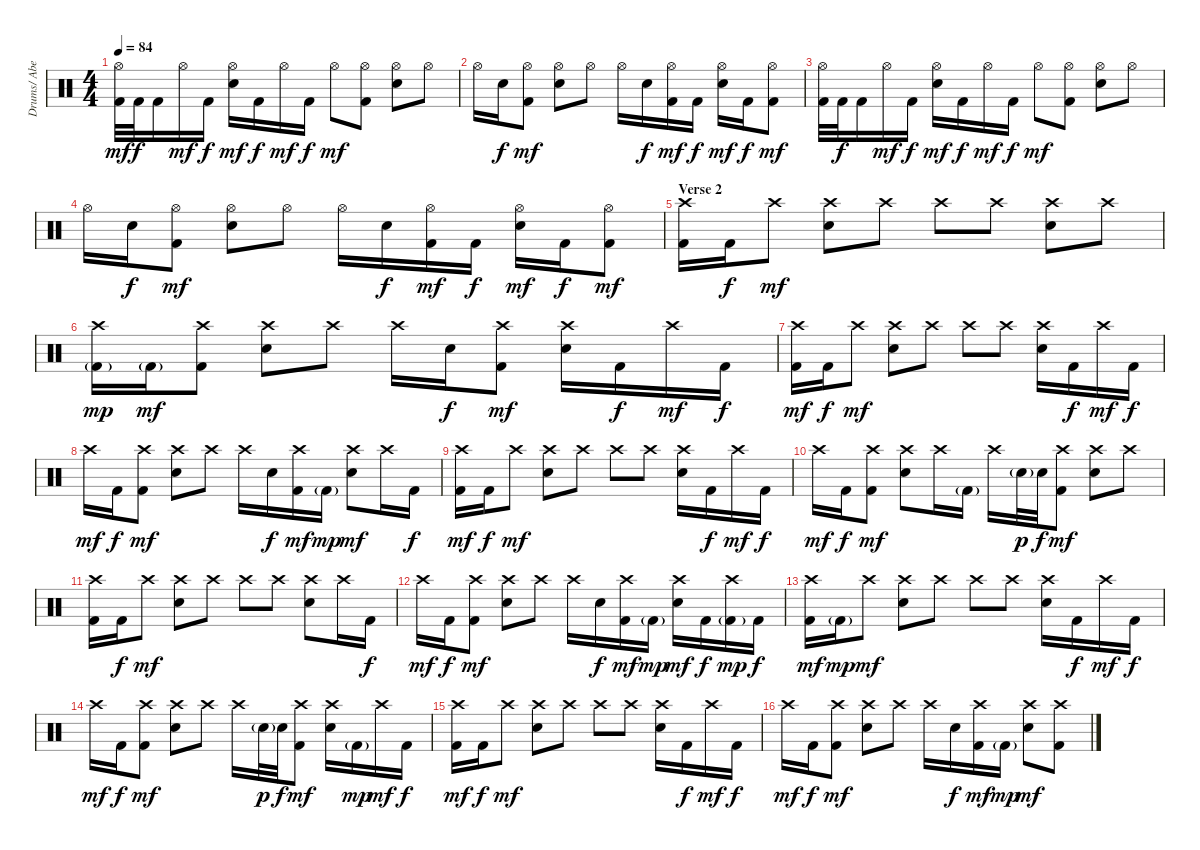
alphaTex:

\track ("Drums/ Abe Cunningham" "Drums/ Abe") {instrument percussion}
\staff {score}
\articulation defaults
\ts (4 4)
\tempo 84
\clef neutral
\ks c
("Hi-Hat (open)" "Kick (hit) 2").32{dy mf} "Kick (hit) 2".32{dy f} "Kick (hit) 2".16 "Hi-Hat (open)".16{dy mf} "Kick (hit) 2".16{dy f} ("Hi-Hat (open)" "Electric Snare (hit)").16{dy mf} "Kick (hit) 2".16{dy f} "Hi-Hat (open)".16{dy mf} "Kick (hit) 2".16{dy f} "Hi-Hat (open)".8{dy mf} ("Hi-Hat (open)" "Kick (hit) 2").8 ("Hi-Hat (open)" "Electric Snare (hit)").8 "Hi-Hat (open)".8 |
"Hi-Hat (open)".16 "Electric Snare (hit)".16{dy f} ("Hi-Hat (open)" "Kick (hit) 2").8{dy mf} ("Hi-Hat (open)" "Electric Snare (hit)").8 "Hi-Hat (open)".8 "Hi-Hat (open)".16 "Electric Snare (hit)".16{dy f} ("Hi-Hat (open)" "Kick (hit) 2").16{dy mf} "Kick (hit) 2".16{dy f} ("Hi-Hat (open)" "Electric Snare (hit)").16{dy mf} "Kick (hit) 2".16{dy f} ("Hi-Hat (open)" "Kick (hit) 2").8{dy mf} |
("Hi-Hat (open)" "Kick (hit) 2").32 "Kick (hit) 2".32{dy f} "Kick (hit) 2".16 "Hi-Hat (open)".16{dy mf} "Kick (hit) 2".16{dy f} ("Hi-Hat (open)" "Electric Snare (hit)").16{dy mf} "Kick (hit) 2".16{dy f} "Hi-Hat (open)".16{dy mf} "Kick (hit) 2".16{dy f} "Hi-Hat (open)".8{dy mf} ("Hi-Hat (open)" "Kick (hit) 2").8 ("Hi-Hat (open)" "Electric Snare (hit)").8 "Hi-Hat (open)".8 |
"Hi-Hat (open)".16 "Electric Snare (hit)".16{dy f} ("Hi-Hat (open)" "Kick (hit) 2").8{dy mf} ("Hi-Hat (open)" "Electric Snare (hit)").8 "Hi-Hat (open)".8 "Hi-Hat (open)".16 "Electric Snare (hit)".16{dy f} ("Hi-Hat (open)" "Kick (hit) 2").16{dy mf} "Kick (hit) 2".16{dy f} ("Hi-Hat (open)" "Electric Snare (hit)").16{dy mf} "Kick (hit) 2".16{dy f} ("Hi-Hat (open)" "Kick (hit) 2").8{dy mf} |
\section ("" "Verse 2")
("Crash high (hit)" "Kick (hit) 2").16 "Kick (hit) 2".16{dy f} "Crash high (hit)".8{dy mf} ("Crash high (hit)" "Electric Snare (hit)").8 "Crash high (hit)".8 "Crash high (hit)".8 "Crash high (hit)".8 ("Crash high (hit)" "Electric Snare (hit)").8 "Crash high (hit)".8 |
("Crash high (hit)" "Kick (hit) 2"{g}).16{dy mp} "Kick (hit) 2"{g}.16{dy mf} ("Crash high (hit)" "Kick (hit) 2").8 ("Crash high (hit)" "Electric Snare (hit)").8 "Crash high (hit)".8 "Crash high (hit)".16 "Electric Snare (hit)".16{dy f} ("Crash high (hit)" "Kick (hit) 2").8{dy mf} ("Crash high (hit)" "Electric Snare (hit)").16 "Kick (hit) 2".16{dy f} "Crash high (hit)".16{dy mf} "Kick (hit) 2".16{dy f} |
("Crash high (hit)" "Kick (hit) 2").16{dy mf} "Kick (hit) 2".16{dy f} "Crash high (hit)".8{dy mf} ("Crash high (hit)" "Electric Snare (hit)").8 "Crash high (hit)".8 "Crash high (hit)".8 "Crash high (hit)".8 ("Crash high (hit)" "Electric Snare (hit)").16 "Kick (hit) 2".16{dy f} "Crash high (hit)".16{dy mf} "Kick (hit) 2".16{dy f} |
"Crash high (hit)".16{dy mf} "Kick (hit) 2".16{dy f} ("Crash high (hit)" "Kick (hit) 2").8{dy mf} ("Crash high (hit)" "Electric Snare (hit)").8 "Crash high (hit)".8 "Crash high (hit)".16 "Electric Snare (hit)".16{dy f} ("Crash high (hit)" "Kick (hit) 2").16{dy mf} "Kick (hit) 2"{g}.16{dy mp} ("Crash high (hit)" "Electric Snare (hit)").8{dy mf} "Crash high (hit)".16 "Kick (hit) 2".16{dy f} |
("Crash high (hit)" "Kick (hit) 2").16{dy mf} "Kick (hit) 2".16{dy f} "Crash high (hit)".8{dy mf} ("Crash high (hit)" "Electric Snare (hit)").8 "Crash high (hit)".8 "Crash high (hit)".8 "Crash high (hit)".8 ("Crash high (hit)" "Electric Snare (hit)").16 "Kick (hit) 2".16{dy f} "Crash high (hit)".16{dy mf} "Kick (hit) 2".16{dy f} |
"Crash high (hit)".16{dy mf} "Kick (hit) 2".16{dy f} ("Crash high (hit)" "Kick (hit) 2").8{dy mf} ("Crash high (hit)" "Electric Snare (hit)").8 "Crash high (hit)".16 "Kick (hit) 2"{g}.16 "Crash high (hit)".16 "Electric Snare (hit)"{g}.32{dy p} "Electric Snare (hit)".32{dy f} ("Crash high (hit)" "Kick (hit) 2").8{dy mf} ("Crash high (hit)" "Electric Snare (hit)").8 "Crash high (hit)".8 |
("Crash high (hit)" "Kick (hit) 2").16 "Kick (hit) 2".16{dy f} "Crash high (hit)".8{dy mf} ("Crash high (hit)" "Electric Snare (hit)").8 "Crash high (hit)".8 "Crash high (hit)".8 "Crash high (hit)".8 ("Crash high (hit)" "Electric Snare (hit)").8 "Crash high (hit)".16 "Kick (hit) 2".16{dy f} |
"Crash high (hit)".16{dy mf} "Kick (hit) 2".16{dy f} ("Crash high (hit)" "Kick (hit) 2").8{dy mf} ("Crash high (hit)" "Electric Snare (hit)").8 "Crash high (hit)".8 "Crash high (hit)".16 "Electric Snare (hit)".16{dy f} ("Crash high (hit)" "Kick (hit) 2").16{dy mf} "Kick (hit) 2"{g}.16{dy mp} ("Crash high (hit)" "Electric Snare (hit)").16{dy mf} "Kick (hit) 2".16{dy f} ("Crash high (hit)" "Kick (hit) 2"{g}).16{dy mp} "Kick (hit) 2".16{dy f} |
("Crash high (hit)" "Kick (hit) 2").16{dy mf} "Kick (hit) 2"{g}.16{dy mp} "Crash high (hit)".8{dy mf} ("Crash high (hit)" "Electric Snare (hit)").8 "Crash high (hit)".8 "Crash high (hit)".8 "Crash high (hit)".8 ("Crash high (hit)" "Electric Snare (hit)").16 "Kick (hit) 2".16{dy f} "Crash high (hit)".16{dy mf} "Kick (hit) 2".16{dy f} |
"Crash high (hit)".16{dy mf} "Kick (hit) 2".16{dy f} ("Crash high (hit)" "Kick (hit) 2").8{dy mf} ("Crash high (hit)" "Electric Snare (hit)").8 "Crash high (hit)".8 "Crash high (hit)".16 "Electric Snare (hit)"{g}.32{dy p} "Electric Snare (hit)".32{dy f} ("Crash high (hit)" "Kick (hit) 2").8{dy mf} ("Crash high (hit)" "Electric Snare (hit)").16 "Kick (hit) 2"{g}.16{dy mp} "Crash high (hit)".16{dy mf} "Kick (hit) 2".16{dy f} |
("Crash high (hit)" "Kick (hit) 2").16{dy mf} "Kick (hit) 2".16{dy f} "Crash high (hit)".8{dy mf} ("Crash high (hit)" "Electric Snare (hit)").8 "Crash high (hit)".8 "Crash high (hit)".8 "Crash high (hit)".8 ("Crash high (hit)" "Electric Snare (hit)").16 "Kick (hit) 2".16{dy f} "Crash high (hit)".16{dy mf} "Kick (hit) 2".16{dy f} |
"Crash high (hit)".16{dy mf} "Kick (hit) 2".16{dy f} ("Crash high (hit)" "Kick (hit) 2").8{dy mf} ("Crash high (hit)" "Electric Snare (hit)").8 "Crash high (hit)".8 "Crash high (hit)".16 "Electric Snare (hit)".16{dy f} ("Crash high (hit)" "Kick (hit) 2").16{dy mf} "Kick (hit) 2"{g}.16{dy mp} ("Crash high (hit)" "Electric Snare (hit)").8{dy mf} ("Crash high (hit)" "Kick (hit) 2").8
